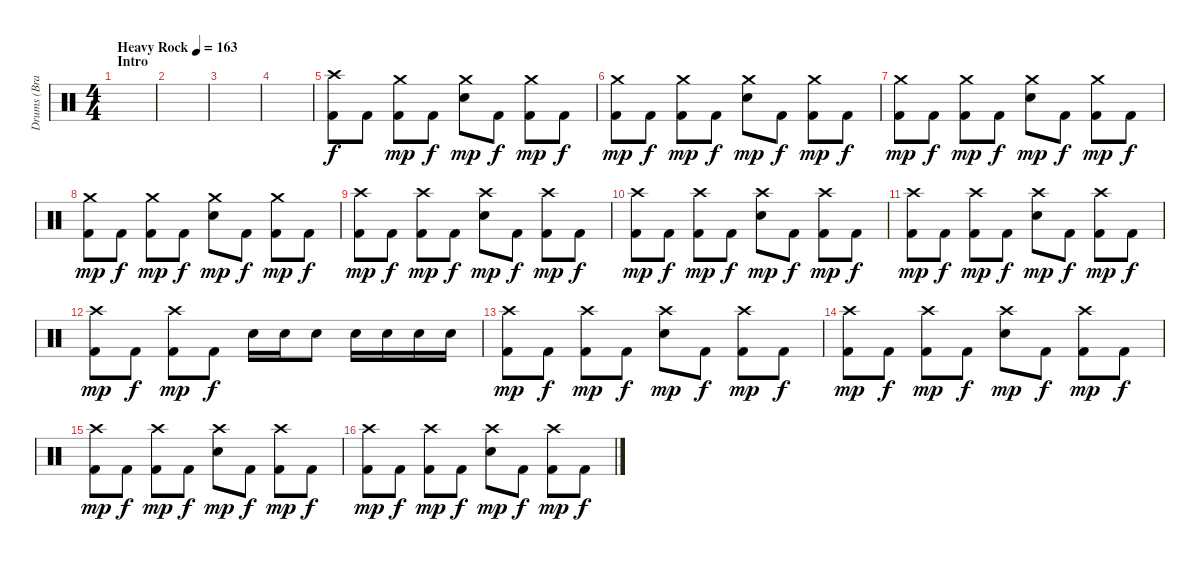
\track ("Drums (Brandon Saller)" "Drums (Bra") {instrument percussion}
\staff {score}
\articulation defaults
\ts (4 4)
\section ("" "Intro")
\tempo (163 "Heavy Rock")
\clef neutral
\ks c
|
|
|
|
("Crash high (hit)" "Kick (hit) 2").8 "Kick (hit) 2".8 ("Crash medium (hit)" "Kick (hit) 2").8{dy mp} "Kick (hit) 2".8{dy f} ("Crash medium (hit)" "Electric Snare (hit)").8{dy mp} "Kick (hit) 2".8{dy f} ("Crash medium (hit)" "Kick (hit) 2").8{dy mp} "Kick (hit) 2".8{dy f} |
("Crash medium (hit)" "Kick (hit) 2").8{dy mp} "Kick (hit) 2".8{dy f} ("Crash medium (hit)" "Kick (hit) 2").8{dy mp} "Kick (hit) 2".8{dy f} ("Crash medium (hit)" "Electric Snare (hit)").8{dy mp} "Kick (hit) 2".8{dy f} ("Crash medium (hit)" "Kick (hit) 2").8{dy mp} "Kick (hit) 2".8{dy f} |
("Crash medium (hit)" "Kick (hit) 2").8{dy mp} "Kick (hit) 2".8{dy f} ("Crash medium (hit)" "Kick (hit) 2").8{dy mp} "Kick (hit) 2".8{dy f} ("Crash medium (hit)" "Electric Snare (hit)").8{dy mp} "Kick (hit) 2".8{dy f} ("Crash medium (hit)" "Kick (hit) 2").8{dy mp} "Kick (hit) 2".8{dy f} |
("Crash medium (hit)" "Kick (hit) 2").8{dy mp} "Kick (hit) 2".8{dy f} ("Crash medium (hit)" "Kick (hit) 2").8{dy mp} "Kick (hit) 2".8{dy f} ("Crash medium (hit)" "Electric Snare (hit)").8{dy mp} "Kick (hit) 2".8{dy f} ("Crash medium (hit)" "Kick (hit) 2").8{dy mp} "Kick (hit) 2".8{dy f} |
("Crash high (hit)" "Kick (hit) 2").8{dy mp} "Kick (hit) 2".8{dy f} ("Crash high (hit)" "Kick (hit) 2").8{dy mp} "Kick (hit) 2".8{dy f} ("Crash high (hit)" "Electric Snare (hit)").8{dy mp} "Kick (hit) 2".8{dy f} ("Crash high (hit)" "Kick (hit) 2").8{dy mp} "Kick (hit) 2".8{dy f} |
("Crash high (hit)" "Kick (hit) 2").8{dy mp} "Kick (hit) 2".8{dy f} ("Crash high (hit)" "Kick (hit) 2").8{dy mp} "Kick (hit) 2".8{dy f} ("Crash high (hit)" "Electric Snare (hit)").8{dy mp} "Kick (hit) 2".8{dy f} ("Crash high (hit)" "Kick (hit) 2").8{dy mp} "Kick (hit) 2".8{dy f} |
("Crash high (hit)" "Kick (hit) 2").8{dy mp} "Kick (hit) 2".8{dy f} ("Crash high (hit)" "Kick (hit) 2").8{dy mp} "Kick (hit) 2".8{dy f} ("Crash high (hit)" "Electric Snare (hit)").8{dy mp} "Kick (hit) 2".8{dy f} ("Crash high (hit)" "Kick (hit) 2").8{dy mp} "Kick (hit) 2".8{dy f} |
("Crash high (hit)" "Kick (hit) 2").8{dy mp} "Kick (hit) 2".8{dy f} ("Crash high (hit)" "Kick (hit) 2").8{dy mp} "Kick (hit) 2".8{dy f} "Electric Snare (hit)".16 "Electric Snare (hit)".16 "Electric Snare (hit)".8 "Electric Snare (hit)".16 "Electric Snare (hit)".16 "Electric Snare (hit)".16 "Electric Snare (hit)".16 |
("Crash high (hit)" "Kick (hit) 2").8{dy mp} "Kick (hit) 2".8{dy f} ("Crash high (hit)" "Kick (hit) 2").8{dy mp} "Kick (hit) 2".8{dy f} ("Crash high (hit)" "Electric Snare (hit)").8{dy mp} "Kick (hit) 2".8{dy f} ("Crash high (hit)" "Kick (hit) 2").8{dy mp} "Kick (hit) 2".8{dy f} |
("Crash high (hit)" "Kick (hit) 2").8{dy mp} "Kick (hit) 2".8{dy f} ("Crash high (hit)" "Kick (hit) 2").8{dy mp} "Kick (hit) 2".8{dy f} ("Crash high (hit)" "Electric Snare (hit)").8{dy mp} "Kick (hit) 2".8{dy f} ("Crash high (hit)" "Kick (hit) 2").8{dy mp} "Kick (hit) 2".8{dy f} |
("Crash high (hit)" "Kick (hit) 2").8{dy mp} "Kick (hit) 2".8{dy f} ("Crash high (hit)" "Kick (hit) 2").8{dy mp} "Kick (hit) 2".8{dy f} ("Crash high (hit)" "Electric Snare (hit)").8{dy mp} "Kick (hit) 2".8{dy f} ("Crash high (hit)" "Kick (hit) 2").8{dy mp} "Kick (hit) 2".8{dy f} |
("Crash high (hit)" "Kick (hit) 2").8{dy mp} "Kick (hit) 2".8{dy f} ("Crash high (hit)" "Kick (hit) 2").8{dy mp} "Kick (hit) 2".8{dy f} ("Crash high (hit)" "Electric Snare (hit)").8{dy mp} "Kick (hit) 2".8{dy f} ("Crash high (hit)" "Kick (hit) 2").8{dy mp} "Kick (hit) 2".8{dy f}
